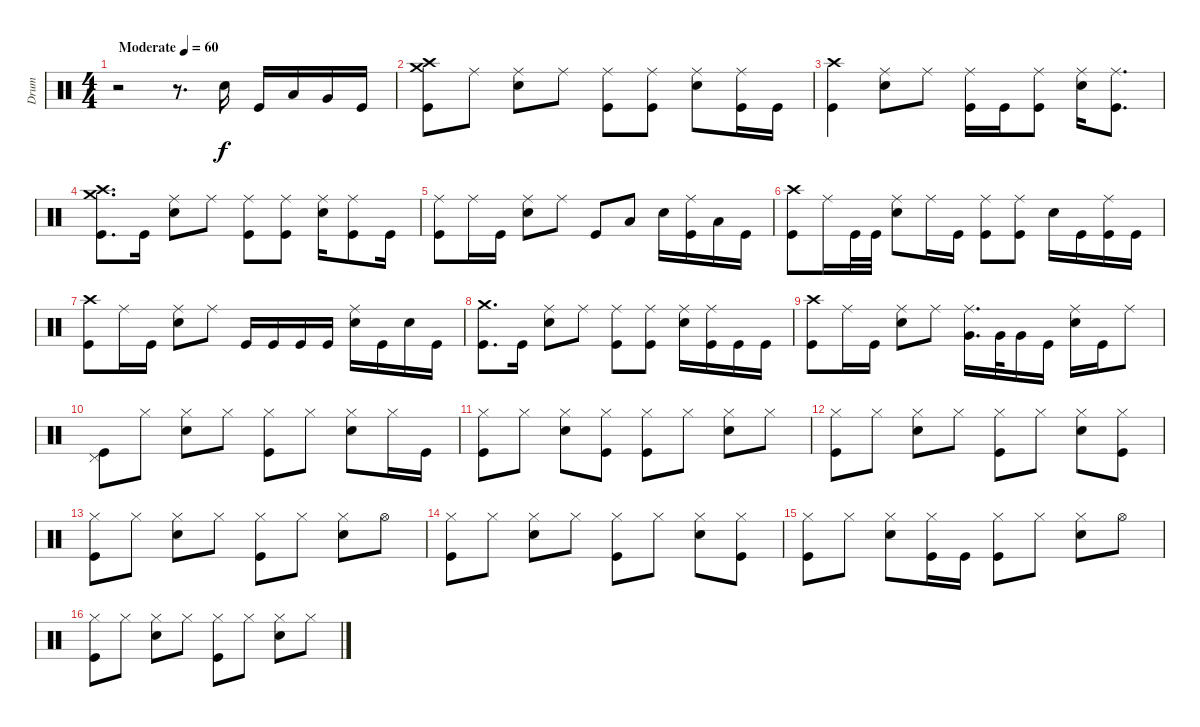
\track ("Drum" "Drum") {instrument percussion}
\staff {score}
\articulation defaults
\ts (4 4)
\tempo (60 "Moderate")
\clef neutral
\ks c
r.2{dy f} r.8{d} "Snare (hit) 2".16 "Kick (hit)".16 "Low Tom (hit)".16 "Very Low Tom (hit)".16 "Kick (hit)".16 |
("Crash high (hit)" "Crash medium (hit)" "Kick (hit)").8 "Ride (middle)".8 ("Ride (middle)" "Snare (hit) 2").8 "Ride (middle)".8 ("Ride (middle)" "Kick (hit)").8 ("Ride (middle)" "Kick (hit)").8 ("Ride (middle)" "Snare (hit) 2").8 ("Ride (middle)" "Kick (hit)").16 "Kick (hit)".16 |
("Crash high (hit)" "Kick (hit)").4 ("Ride (middle)" "Snare (hit) 2").8 "Ride (middle)".8 ("Ride (middle)" "Kick (hit)").16 "Kick (hit)".16 ("Ride (middle)" "Kick (hit)").8 ("Ride (middle)" "Snare (hit) 2").16 ("Ride (middle)" "Kick (hit)").8{d} |
("Crash high (hit)" "Crash medium (hit)" "Kick (hit)").8{d} "Kick (hit)".16 ("Ride (middle)" "Snare (hit) 2").8 "Ride (middle)".8 ("Ride (middle)" "Kick (hit)").8 ("Ride (middle)" "Kick (hit)").8 ("Ride (middle)" "Snare (hit) 2").16 ("Ride (middle)" "Kick (hit)").8 "Kick (hit)".16 |
("Ride (middle)" "Kick (hit)").8 "Ride (middle)".16 "Kick (hit)".16 ("Ride (middle)" "Snare (hit) 2").8 "Ride (middle)".8 "Kick (hit)".8 "Low Tom (hit)".8 "Snare (hit) 2".16 ("Ride (middle)" "Kick (hit)").16 "Low Tom (hit)".16 "Kick (hit)".16 |
("Crash high (hit)" "Kick (hit)").8 "Ride (middle)".16 "Kick (hit)".32 "Kick (hit)".32 ("Ride (middle)" "Snare (hit) 2").8 "Ride (middle)".16 "Kick (hit)".16 ("Ride (middle)" "Kick (hit)").8 ("Ride (middle)" "Kick (hit)").8 "Snare (hit) 2".16 "Kick (hit)".16 ("Ride (middle)" "Kick (hit)").16 "Kick (hit)".16 |
("Crash high (hit)" "Kick (hit)").8 "Ride (middle)".16 "Kick (hit)".16 ("Ride (middle)" "Snare (hit) 2").8 "Ride (middle)".8 "Kick (hit)".16 "Kick (hit)".16 "Kick (hit)".16 "Kick (hit)".16 ("Ride (middle)" "Snare (hit) 2").16 "Kick (hit)".16 "Snare (hit) 2".16 "Kick (hit)".16 |
("Crash medium (hit)" "Kick (hit)").8{d} "Kick (hit)".16 ("Ride (middle)" "Snare (hit) 2").8 "Ride (middle)".8 ("Ride (middle)" "Kick (hit)").8 ("Ride (middle)" "Kick (hit)").8 ("Ride (middle)" "Snare (hit) 2").16 ("Ride (middle)" "Kick (hit)").16 "Kick (hit)".16 "Kick (hit)".16 |
("Crash high (hit)" "Kick (hit)").8 "Ride (middle)".16 "Kick (hit)".16 ("Ride (middle)" "Snare (hit) 2").8 "Ride (middle)".8 ("Ride (middle)" "Very Low Tom (hit)").16{d} "Very Low Tom (hit)".32 "Very Low Tom (hit)".16 "Kick (hit)".16 ("Ride (middle)" "Snare (hit) 2").16 "Kick (hit)".16 "Ride (middle)".8 |
("Pedal Hi-Hat (hit)" "Kick (hit)").8 "Hi-Hat (closed)".8 ("Hi-Hat (closed)" "Snare (hit) 2").8 "Hi-Hat (closed)".8 ("Hi-Hat (closed)" "Kick (hit)").8 "Hi-Hat (closed)".8 ("Hi-Hat (closed)" "Snare (hit) 2").8 "Hi-Hat (closed)".16 "Kick (hit)".16 |
("Hi-Hat (closed)" "Kick (hit)").8 "Hi-Hat (closed)".8 ("Hi-Hat (closed)" "Snare (hit) 2").8 ("Hi-Hat (closed)" "Kick (hit)").8 ("Hi-Hat (closed)" "Kick (hit)").8 "Hi-Hat (closed)".8 ("Hi-Hat (closed)" "Snare (hit) 2").8 "Hi-Hat (closed)".8 |
("Hi-Hat (closed)" "Kick (hit)").8 "Hi-Hat (closed)".8 ("Hi-Hat (closed)" "Snare (hit) 2").8 "Hi-Hat (closed)".8 ("Hi-Hat (closed)" "Kick (hit)").8 "Hi-Hat (closed)".8 ("Hi-Hat (closed)" "Snare (hit) 2").8 ("Hi-Hat (closed)" "Kick (hit)").8 |
("Hi-Hat (closed)" "Kick (hit)").8 "Hi-Hat (closed)".8 ("Hi-Hat (closed)" "Snare (hit) 2").8 "Hi-Hat (closed)".8 ("Hi-Hat (closed)" "Kick (hit)").8 "Hi-Hat (closed)".8 ("Hi-Hat (closed)" "Snare (hit) 2").8 "Hi-Hat (open)".8 |
("Hi-Hat (closed)" "Kick (hit)").8 "Hi-Hat (closed)".8 ("Hi-Hat (closed)" "Snare (hit) 2").8 "Hi-Hat (closed)".8 ("Hi-Hat (closed)" "Kick (hit)").8 "Hi-Hat (closed)".8 ("Hi-Hat (closed)" "Snare (hit) 2").8 ("Hi-Hat (closed)" "Kick (hit)").8 |
("Hi-Hat (closed)" "Kick (hit)").8 "Hi-Hat (closed)".8 ("Hi-Hat (closed)" "Snare (hit) 2").8 ("Hi-Hat (closed)" "Kick (hit)").16 "Kick (hit)".16 ("Hi-Hat (closed)" "Kick (hit)").8 "Hi-Hat (closed)".8 ("Hi-Hat (closed)" "Snare (hit) 2").8 "Hi-Hat (open)".8 |
("Hi-Hat (closed)" "Kick (hit)").8 "Hi-Hat (closed)".8 ("Hi-Hat (closed)" "Snare (hit) 2").8 "Hi-Hat (closed)".8 ("Hi-Hat (closed)" "Kick (hit)").8 "Hi-Hat (closed)".8 ("Hi-Hat (closed)" "Snare (hit) 2").8 "Hi-Hat (closed)".8
